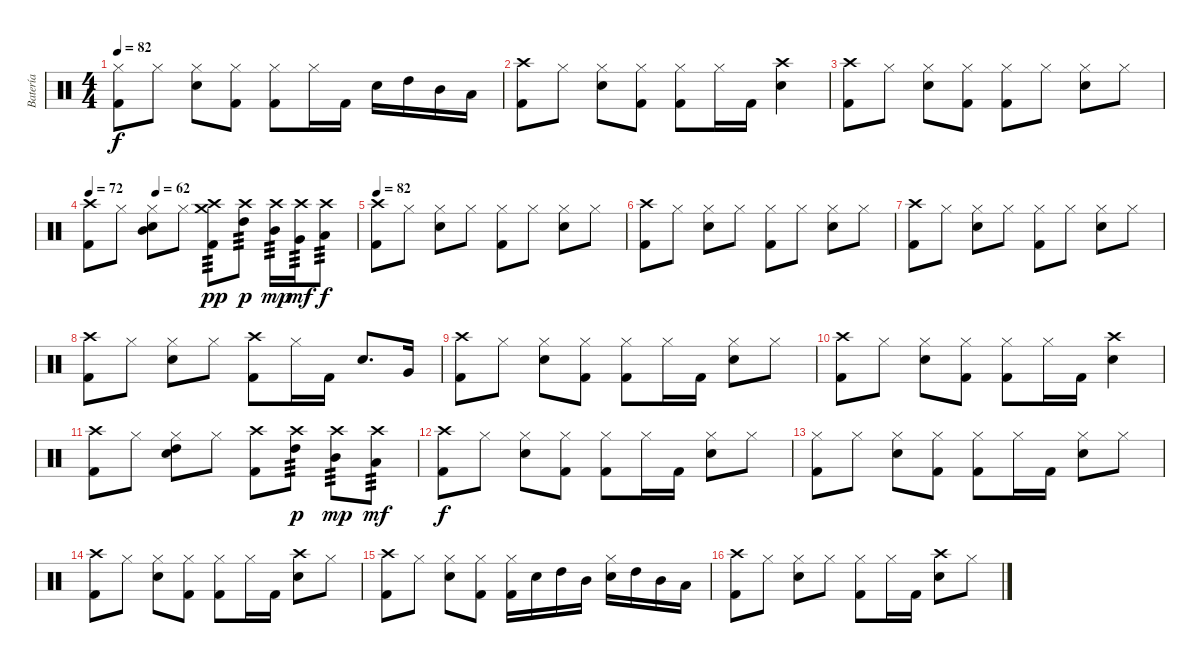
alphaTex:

\track ("Batería" "Batería") {instrument percussion}
\staff {score}
\articulation defaults
\ts (4 4)
\tempo 82
\clef neutral
\ks c
("Hi-Hat (closed)" "Kick (hit) 2").8{dy f} "Hi-Hat (closed)".8 ("Hi-Hat (closed)" "Snare (hit) 2").8 ("Hi-Hat (closed)" "Kick (hit) 2").8 ("Hi-Hat (closed)" "Kick (hit) 2").8 "Hi-Hat (closed)".16 "Kick (hit) 2".16 "Snare (hit) 2".16 "High Tom (hit)".16 "Mid Tom (hit)".16 "Low Tom (hit)".16 |
("Kick (hit) 2" "Crash high (hit)").8 "Hi-Hat (closed)".8 ("Hi-Hat (closed)" "Snare (hit) 2").8 ("Hi-Hat (closed)" "Kick (hit) 2").8 ("Hi-Hat (closed)" "Kick (hit) 2").8 "Hi-Hat (closed)".16 "Kick (hit) 2".16 ("Crash high (hit)" "Snare (hit) 2").4 |
("Kick (hit) 2" "Crash high (hit)").8 "Hi-Hat (closed)".8 ("Hi-Hat (closed)" "Snare (hit) 2").8 ("Hi-Hat (closed)" "Kick (hit) 2").8 ("Hi-Hat (closed)" "Kick (hit) 2").8 "Hi-Hat (closed)".8 ("Hi-Hat (closed)" "Snare (hit) 2").8 "Hi-Hat (closed)".8 |
\tempo 72
\tempo (62 0.25)
("Kick (hit) 2" "Crash high (hit)").8 "Hi-Hat (closed)".8 ("Hi-Hat (closed)" "Snare (hit) 2" "Mid Tom (hit)").8 "Hi-Hat (closed)".8 ("Crash high (hit)" "Kick (hit) 2" "Crash medium (hit)").8{tp 3 dy pp} ("Crash high (hit)" "High Tom (hit)").8{tp 3 dy p} ("Crash high (hit)" "Mid Tom (hit)").16{tp 3 dy mp} ("Crash high (hit)" "Very Low Tom (hit)").16{tp 3 dy mf} ("Crash high (hit)" "Low Tom (hit)").8{tp 3 dy f} |
\tempo 82
("Crash high (hit)" "Kick (hit) 2").8 "Hi-Hat (closed)".8 ("Hi-Hat (closed)" "Snare (hit) 2").8 "Hi-Hat (closed)".8 ("Hi-Hat (closed)" "Kick (hit) 2").8 "Hi-Hat (closed)".8 ("Hi-Hat (closed)" "Snare (hit) 2").8 "Hi-Hat (closed)".8 |
("Crash high (hit)" "Kick (hit) 2").8 "Hi-Hat (closed)".8 ("Hi-Hat (closed)" "Snare (hit) 2").8 "Hi-Hat (closed)".8 ("Hi-Hat (closed)" "Kick (hit) 2").8 "Hi-Hat (closed)".8 ("Hi-Hat (closed)" "Snare (hit) 2").8 "Hi-Hat (closed)".8 |
("Crash high (hit)" "Kick (hit) 2").8 "Hi-Hat (closed)".8 ("Hi-Hat (closed)" "Snare (hit) 2").8 "Hi-Hat (closed)".8 ("Hi-Hat (closed)" "Kick (hit) 2").8 "Hi-Hat (closed)".8 ("Hi-Hat (closed)" "Snare (hit) 2").8 "Hi-Hat (closed)".8 |
("Crash high (hit)" "Kick (hit) 2").8 "Hi-Hat (closed)".8 ("Hi-Hat (closed)" "Snare (hit) 2").8 "Hi-Hat (closed)".8 ("Crash high (hit)" "Kick (hit) 2").8 "Hi-Hat (closed)".16 "Kick (hit) 2".16 "Snare (hit) 2".8{d} "Very Low Tom (hit)".16 |
("Crash high (hit)" "Kick (hit) 2").8 "Hi-Hat (closed)".8 ("Hi-Hat (closed)" "Snare (hit) 2").8 ("Hi-Hat (closed)" "Kick (hit) 2").8 ("Hi-Hat (closed)" "Kick (hit) 2").8 "Hi-Hat (closed)".16 "Kick (hit) 2".16 ("Hi-Hat (closed)" "Snare (hit) 2").8 "Hi-Hat (closed)".8 |
("Crash high (hit)" "Kick (hit) 2").8 "Hi-Hat (closed)".8 ("Hi-Hat (closed)" "Snare (hit) 2").8 ("Hi-Hat (closed)" "Kick (hit) 2").8 ("Hi-Hat (closed)" "Kick (hit) 2").8 "Hi-Hat (closed)".16 "Kick (hit) 2".16 ("Crash high (hit)" "Snare (hit) 2").4 |
("Crash high (hit)" "Kick (hit) 2").8 "Hi-Hat (closed)".8 ("Hi-Hat (closed)" "Snare (hit) 2" "High Tom (hit)").8 "Hi-Hat (closed)".8 ("Crash high (hit)" "Kick (hit) 2").8 ("High Tom (hit)" "Crash high (hit)").8{tp 3 dy p} ("Mid Tom (hit)" "Crash high (hit)").8{tp 3 dy mp} ("Low Tom (hit)" "Crash high (hit)").8{tp 3 dy mf} |
("Crash high (hit)" "Kick (hit) 2").8{dy f} "Hi-Hat (closed)".8 ("Hi-Hat (closed)" "Snare (hit) 2").8 ("Hi-Hat (closed)" "Kick (hit) 2").8 ("Hi-Hat (closed)" "Kick (hit) 2").8 "Hi-Hat (closed)".16 "Kick (hit) 2".16 ("Hi-Hat (closed)" "Snare (hit) 2").8 "Hi-Hat (closed)".8 |
("Hi-Hat (closed)" "Kick (hit) 2").8 "Hi-Hat (closed)".8 ("Hi-Hat (closed)" "Snare (hit) 2").8 ("Hi-Hat (closed)" "Kick (hit) 2").8 ("Hi-Hat (closed)" "Kick (hit) 2").8 "Hi-Hat (closed)".16 "Kick (hit) 2".16 ("Hi-Hat (closed)" "Snare (hit) 2").8 "Hi-Hat (closed)".8 |
("Crash high (hit)" "Kick (hit) 2").8 "Hi-Hat (closed)".8 ("Hi-Hat (closed)" "Snare (hit) 2").8 ("Hi-Hat (closed)" "Kick (hit) 2").8 ("Hi-Hat (closed)" "Kick (hit) 2").8 "Hi-Hat (closed)".16 "Kick (hit) 2".16 ("Crash high (hit)" "Snare (hit) 2").8 "Hi-Hat (closed)".8 |
("Crash high (hit)" "Kick (hit) 2").8 "Hi-Hat (closed)".8 ("Hi-Hat (closed)" "Snare (hit) 2").8 ("Hi-Hat (closed)" "Kick (hit) 2").8 ("Hi-Hat (closed)" "Kick (hit) 2").16 "Snare (hit) 2".16 "High Tom (hit)".16 "Mid Tom (hit)".16 ("Hi-Hat (closed)" "Snare (hit) 2").16 "High Tom (hit)".16 "Mid Tom (hit)".16 "Low Tom (hit)".16 |
("Crash high (hit)" "Kick (hit) 2").8 "Hi-Hat (closed)".8 ("Hi-Hat (closed)" "Snare (hit) 2").8 "Hi-Hat (closed)".8 ("Hi-Hat (closed)" "Kick (hit) 2").8 "Hi-Hat (closed)".16 "Kick (hit) 2".16 ("Crash high (hit)" "Snare (hit) 2").8 "Hi-Hat (closed)".8
